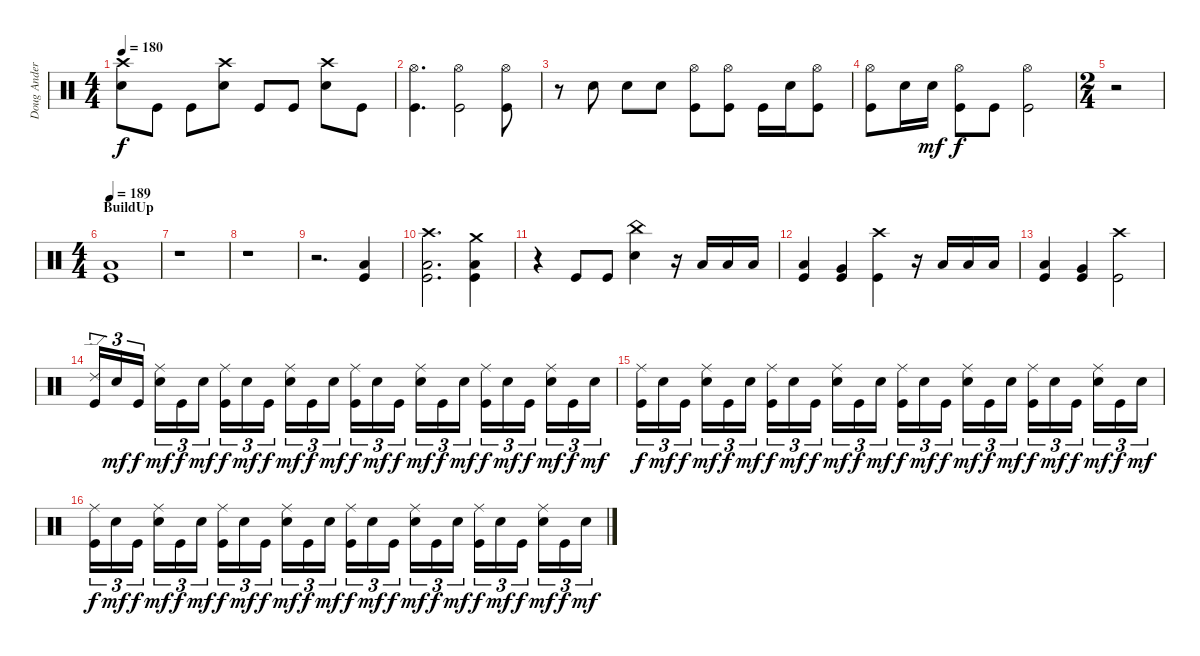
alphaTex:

\track ("Doug Anderson" "Doug Ander") {instrument percussion}
\staff {score}
\articulation defaults
\ts (4 4)
\tempo 180
\clef neutral
\ks c
("Snare (hit) 2" "Crash high (hit)").8{dy f} "Kick (hit)".8 "Kick (hit)".8 ("Snare (hit) 2" "Crash high (hit)").8 "Kick (hit)".8 "Kick (hit)".8 ("Snare (hit) 2" "Crash high (hit)").8 "Kick (hit)".8 |
("Kick (hit)" "Hi-Hat (open)").4{d} ("Kick (hit)" "Hi-Hat (open)").2 ("Kick (hit)" "Hi-Hat (open)").8 |
r.8 "Snare (hit) 2".8 "Snare (hit) 2".8 "Snare (hit) 2".8 ("Kick (hit)" "Hi-Hat (open)").8 ("Kick (hit)" "Hi-Hat (open)").8 "Kick (hit)".16 "Snare (hit) 2".16 ("Kick (hit)" "Hi-Hat (open)").8 |
("Kick (hit)" "Hi-Hat (open)").8 "Snare (hit) 2".16 "Snare (hit) 2".16{dy mf} ("Kick (hit)" "Hi-Hat (open)").8{dy f} "Kick (hit)".8 ("Kick (hit)" "Hi-Hat (open)").2 |
\ts (2 4)
r.2 |
\ts (4 4)
\section ("" "BuildUp")
\tempo 189
("Kick (hit)" "Low Floor Tom (hit)").1 |
r.1 |
r.1 |
r.2{d} ("Low Tom (hit)" "Kick (hit)").4 |
("Kick (hit)" "Low Floor Tom (hit)" "Crash high (hit)").2{d} ("Kick (hit)" "Low Tom (hit)" "Crash medium (hit)").4 |
r.4 "Kick (hit)".8 "Kick (hit)".8 ("China (hit)" "Snare (hit) 2").4 r.16 "Low Floor Tom (hit)".16 "Low Floor Tom (hit)".16 "Low Floor Tom (hit)".16 |
("Kick (hit)" "Low Floor Tom (hit)").4 ("Kick (hit)" "Very Low Tom (hit)").4 ("Kick (hit)" "Crash high (hit)").4 r.16 "Low Floor Tom (hit)".16 "Low Floor Tom (hit)".16 "Low Floor Tom (hit)".16 |
("Kick (hit)" "Low Floor Tom (hit)").4 ("Kick (hit)" "Very Low Tom (hit)").4 ("Kick (hit)" "Crash high (hit)").2 |
("Kick (hit)" "Ride (edge) 2").16{tu (3 2)} "Snare (hit) 2".16{tu (3 2) dy mf} "Kick (hit)".16{tu (3 2) dy f beam splitsecondary} ("Snare (hit) 2" "Ride (middle)").16{tu (3 2) dy mf} "Kick (hit)".16{tu (3 2) dy f} "Snare (hit) 2".16{tu (3 2) dy mf} ("Kick (hit)" "Ride (middle)").16{tu (3 2) dy f} "Snare (hit) 2".16{tu (3 2) dy mf} "Kick (hit)".16{tu (3 2) dy f beam splitsecondary} ("Snare (hit) 2" "Ride (middle)").16{tu (3 2) dy mf} "Kick (hit)".16{tu (3 2) dy f} "Snare (hit) 2".16{tu (3 2) dy mf} ("Kick (hit)" "Ride (middle)").16{tu (3 2) dy f} "Snare (hit) 2".16{tu (3 2) dy mf} "Kick (hit)".16{tu (3 2) dy f beam splitsecondary} ("Snare (hit) 2" "Ride (middle)").16{tu (3 2) dy mf} "Kick (hit)".16{tu (3 2) dy f} "Snare (hit) 2".16{tu (3 2) dy mf} ("Kick (hit)" "Ride (middle)").16{tu (3 2) dy f} "Snare (hit) 2".16{tu (3 2) dy mf} "Kick (hit)".16{tu (3 2) dy f beam splitsecondary} ("Snare (hit) 2" "Ride (middle)").16{tu (3 2) dy mf} "Kick (hit)".16{tu (3 2) dy f} "Snare (hit) 2".16{tu (3 2) dy mf} |
("Kick (hit)" "Ride (middle)").16{tu (3 2) dy f} "Snare (hit) 2".16{tu (3 2) dy mf} "Kick (hit)".16{tu (3 2) dy f beam splitsecondary} ("Snare (hit) 2" "Ride (middle)").16{tu (3 2) dy mf} "Kick (hit)".16{tu (3 2) dy f} "Snare (hit) 2".16{tu (3 2) dy mf} ("Kick (hit)" "Ride (middle)").16{tu (3 2) dy f} "Snare (hit) 2".16{tu (3 2) dy mf} "Kick (hit)".16{tu (3 2) dy f beam splitsecondary} ("Snare (hit) 2" "Ride (middle)").16{tu (3 2) dy mf} "Kick (hit)".16{tu (3 2) dy f} "Snare (hit) 2".16{tu (3 2) dy mf} ("Kick (hit)" "Ride (middle)").16{tu (3 2) dy f} "Snare (hit) 2".16{tu (3 2) dy mf} "Kick (hit)".16{tu (3 2) dy f beam splitsecondary} ("Snare (hit) 2" "Ride (middle)").16{tu (3 2) dy mf} "Kick (hit)".16{tu (3 2) dy f} "Snare (hit) 2".16{tu (3 2) dy mf} ("Kick (hit)" "Ride (middle)").16{tu (3 2) dy f} "Snare (hit) 2".16{tu (3 2) dy mf} "Kick (hit)".16{tu (3 2) dy f beam splitsecondary} ("Snare (hit) 2" "Ride (middle)").16{tu (3 2) dy mf} "Kick (hit)".16{tu (3 2) dy f} "Snare (hit) 2".16{tu (3 2) dy mf} |
("Kick (hit)" "Ride (middle)").16{tu (3 2) dy f} "Snare (hit) 2".16{tu (3 2) dy mf} "Kick (hit)".16{tu (3 2) dy f beam splitsecondary} ("Snare (hit) 2" "Ride (middle)").16{tu (3 2) dy mf} "Kick (hit)".16{tu (3 2) dy f} "Snare (hit) 2".16{tu (3 2) dy mf} ("Kick (hit)" "Ride (middle)").16{tu (3 2) dy f} "Snare (hit) 2".16{tu (3 2) dy mf} "Kick (hit)".16{tu (3 2) dy f beam splitsecondary} ("Snare (hit) 2" "Ride (middle)").16{tu (3 2) dy mf} "Kick (hit)".16{tu (3 2) dy f} "Snare (hit) 2".16{tu (3 2) dy mf} ("Kick (hit)" "Ride (middle)").16{tu (3 2) dy f} "Snare (hit) 2".16{tu (3 2) dy mf} "Kick (hit)".16{tu (3 2) dy f beam splitsecondary} ("Snare (hit) 2" "Ride (middle)").16{tu (3 2) dy mf} "Kick (hit)".16{tu (3 2) dy f} "Snare (hit) 2".16{tu (3 2) dy mf} ("Kick (hit)" "Ride (middle)").16{tu (3 2) dy f} "Snare (hit) 2".16{tu (3 2) dy mf} "Kick (hit)".16{tu (3 2) dy f beam splitsecondary} ("Snare (hit) 2" "Ride (middle)").16{tu (3 2) dy mf} "Kick (hit)".16{tu (3 2) dy f} "Snare (hit) 2".16{tu (3 2) dy mf}
